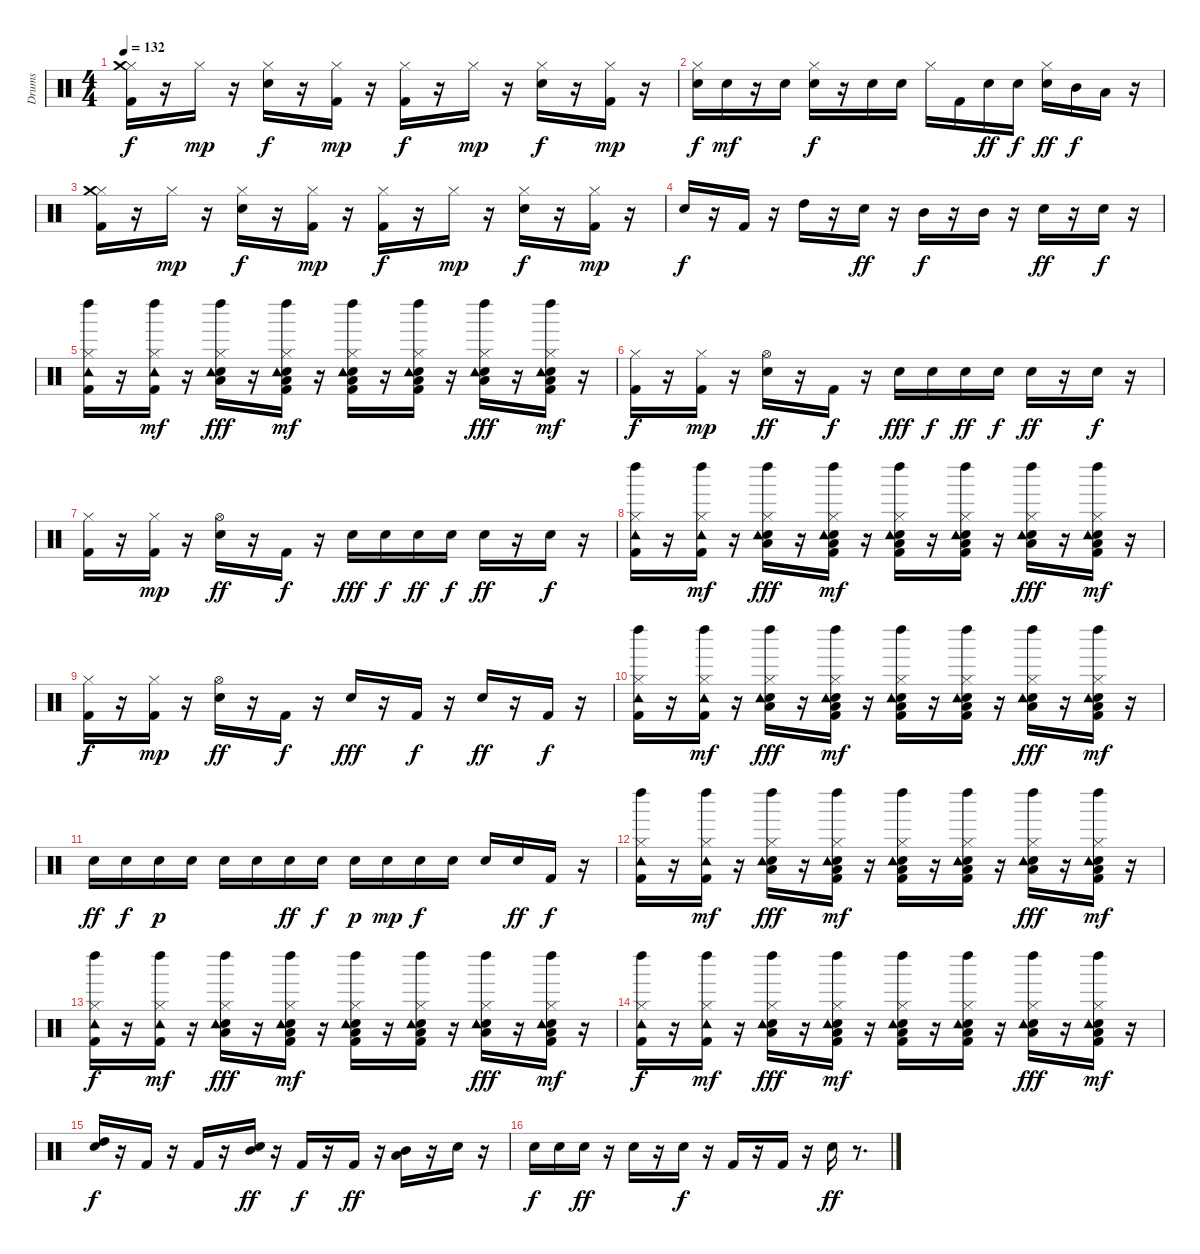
\track ("Drums" "Drums") {instrument percussion}
\staff {score}
\articulation defaults
\ts (4 4)
\tempo 132
\clef neutral
\ks c
("Kick (hit) 2" "Hi-Hat (closed)" "Crash medium (hit)").16{dy f} r.16 "Hi-Hat (closed)".16{dy mp} r.16 ("Snare (hit) 2" "Hi-Hat (closed)").16{dy f} r.16 ("Kick (hit) 2" "Hi-Hat (closed)").16{dy mp} r.16 ("Kick (hit) 2" "Hi-Hat (closed)").16{dy f} r.16 "Hi-Hat (closed)".16{dy mp} r.16 ("Snare (hit) 2" "Hi-Hat (closed)").16{dy f} r.16 ("Kick (hit) 2" "Hi-Hat (closed)").16{dy mp} r.16 |
("Snare (hit) 2" "Hi-Hat (closed)").16{dy f} "Snare (hit) 2".16{dy mf} r.16 "Snare (hit) 2".16 ("Snare (hit) 2" "Hi-Hat (closed)").16{dy f} r.16 "Snare (hit) 2".16 "Snare (hit) 2".16 "Hi-Hat (closed)".16 "Kick (hit) 2".16 "Snare (hit) 2".16{dy ff} "Snare (hit) 2".16{dy f} ("Snare (hit) 2" "Hi-Hat (closed)").16{dy ff} "Mid Tom (hit)".16{dy f} "Low Floor Tom (hit)".16 r.16 |
("Kick (hit) 2" "Hi-Hat (closed)" "Crash medium (hit)").16 r.16 "Hi-Hat (closed)".16{dy mp} r.16 ("Snare (hit) 2" "Hi-Hat (closed)").16{dy f} r.16 ("Kick (hit) 2" "Hi-Hat (closed)").16{dy mp} r.16 ("Kick (hit) 2" "Hi-Hat (closed)").16{dy f} r.16 "Hi-Hat (closed)".16{dy mp} r.16 ("Snare (hit) 2" "Hi-Hat (closed)").16{dy f} r.16 ("Kick (hit) 2" "Hi-Hat (closed)").16{dy mp} r.16 |
"Snare (hit) 2".16{dy f} r.16 "Kick (hit) 2".16 r.16 "High Tom (hit)".16 r.16 "Snare (hit) 2".16{dy ff} r.16 "Mid Tom (hit)".16{dy f} r.16 "Mid Tom (hit)".16 r.16 "Snare (hit) 2".16{dy ff} r.16 "Snare (hit) 2".16{dy f} r.16 |
("Kick (hit) 2" "Hi-Hat (closed)" "Tambourine (hit)" "Left Maraca (hit)").16 r.16 ("Kick (hit) 2" "Hi-Hat (closed)" "Tambourine (hit)" "Left Maraca (hit)").16{dy mf} r.16 ("Snare (hit) 2" "Hi-Hat (closed)" "Low Floor Tom (hit)" "Tambourine (hit)" "Left Maraca (hit)").16{dy fff} r.16 ("Kick (hit) 2" "Snare (hit) 2" "Hi-Hat (closed)" "Low Floor Tom (hit)" "Tambourine (hit)" "Left Maraca (hit)").16{dy mf} r.16 ("Kick (hit) 2" "Snare (hit) 2" "Hi-Hat (closed)" "Low Floor Tom (hit)" "Tambourine (hit)" "Left Maraca (hit)").16 r.16 ("Kick (hit) 2" "Snare (hit) 2" "Hi-Hat (closed)" "Low Floor Tom (hit)" "Tambourine (hit)" "Left Maraca (hit)").16 r.16 ("Snare (hit) 2" "Hi-Hat (closed)" "Low Floor Tom (hit)" "Tambourine (hit)" "Left Maraca (hit)").16{dy fff} r.16 ("Kick (hit) 2" "Snare (hit) 2" "Hi-Hat (closed)" "Low Floor Tom (hit)" "Tambourine (hit)" "Left Maraca (hit)").16{dy mf} r.16 |
("Kick (hit) 2" "Hi-Hat (closed)").16{dy f} r.16 ("Kick (hit) 2" "Hi-Hat (closed)").16{dy mp} r.16 ("Snare (hit) 2" "Hi-Hat (open)").16{dy ff} r.16 "Kick (hit) 2".16{dy f} r.16 "Snare (hit) 2".16{dy fff} "Snare (hit) 2".16{dy f} "Snare (hit) 2".16{dy ff} "Snare (hit) 2".16{dy f} "Snare (hit) 2".16{dy ff} r.16 "Snare (hit) 2".16{dy f} r.16 |
("Kick (hit) 2" "Hi-Hat (closed)").16 r.16 ("Kick (hit) 2" "Hi-Hat (closed)").16{dy mp} r.16 ("Snare (hit) 2" "Hi-Hat (open)").16{dy ff} r.16 "Kick (hit) 2".16{dy f} r.16 "Snare (hit) 2".16{dy fff} "Snare (hit) 2".16{dy f} "Snare (hit) 2".16{dy ff} "Snare (hit) 2".16{dy f} "Snare (hit) 2".16{dy ff} r.16 "Snare (hit) 2".16{dy f} r.16 |
("Kick (hit) 2" "Hi-Hat (closed)" "Tambourine (hit)" "Left Maraca (hit)").16 r.16 ("Kick (hit) 2" "Hi-Hat (closed)" "Tambourine (hit)" "Left Maraca (hit)").16{dy mf} r.16 ("Snare (hit) 2" "Hi-Hat (closed)" "Low Floor Tom (hit)" "Tambourine (hit)" "Left Maraca (hit)").16{dy fff} r.16 ("Kick (hit) 2" "Snare (hit) 2" "Hi-Hat (closed)" "Low Floor Tom (hit)" "Tambourine (hit)" "Left Maraca (hit)").16{dy mf} r.16 ("Kick (hit) 2" "Snare (hit) 2" "Hi-Hat (closed)" "Low Floor Tom (hit)" "Tambourine (hit)" "Left Maraca (hit)").16 r.16 ("Kick (hit) 2" "Snare (hit) 2" "Hi-Hat (closed)" "Low Floor Tom (hit)" "Tambourine (hit)" "Left Maraca (hit)").16 r.16 ("Snare (hit) 2" "Hi-Hat (closed)" "Low Floor Tom (hit)" "Tambourine (hit)" "Left Maraca (hit)").16{dy fff} r.16 ("Kick (hit) 2" "Snare (hit) 2" "Hi-Hat (closed)" "Low Floor Tom (hit)" "Tambourine (hit)" "Left Maraca (hit)").16{dy mf} r.16 |
("Kick (hit) 2" "Hi-Hat (closed)").16{dy f} r.16 ("Kick (hit) 2" "Hi-Hat (closed)").16{dy mp} r.16 ("Snare (hit) 2" "Hi-Hat (open)").16{dy ff} r.16 "Kick (hit) 2".16{dy f} r.16 "Snare (hit) 2".16{dy fff} r.16 "Kick (hit) 2".16{dy f} r.16 "Snare (hit) 2".16{dy ff} r.16 "Kick (hit) 2".16{dy f} r.16 |
("Kick (hit) 2" "Hi-Hat (closed)" "Tambourine (hit)" "Left Maraca (hit)").16 r.16 ("Kick (hit) 2" "Hi-Hat (closed)" "Tambourine (hit)" "Left Maraca (hit)").16{dy mf} r.16 ("Snare (hit) 2" "Hi-Hat (closed)" "Low Floor Tom (hit)" "Tambourine (hit)" "Left Maraca (hit)").16{dy fff} r.16 ("Kick (hit) 2" "Snare (hit) 2" "Hi-Hat (closed)" "Low Floor Tom (hit)" "Tambourine (hit)" "Left Maraca (hit)").16{dy mf} r.16 ("Kick (hit) 2" "Snare (hit) 2" "Hi-Hat (closed)" "Low Floor Tom (hit)" "Tambourine (hit)" "Left Maraca (hit)").16 r.16 ("Kick (hit) 2" "Snare (hit) 2" "Hi-Hat (closed)" "Low Floor Tom (hit)" "Tambourine (hit)" "Left Maraca (hit)").16 r.16 ("Snare (hit) 2" "Hi-Hat (closed)" "Low Floor Tom (hit)" "Tambourine (hit)" "Left Maraca (hit)").16{dy fff} r.16 ("Kick (hit) 2" "Snare (hit) 2" "Hi-Hat (closed)" "Low Floor Tom (hit)" "Tambourine (hit)" "Left Maraca (hit)").16{dy mf} r.16 |
"Snare (hit) 2".16{dy ff} "Snare (hit) 2".16{dy f} "Snare (hit) 2".16{dy p} "Snare (hit) 2".16 "Snare (hit) 2".16 "Snare (hit) 2".16 "Snare (hit) 2".16{dy ff} "Snare (hit) 2".16{dy f} "Snare (hit) 2".16{dy p} "Snare (hit) 2".16{dy mp} "Snare (hit) 2".16{dy f} "Snare (hit) 2".16 "Snare (hit) 2".16 "Snare (hit) 2".16{dy ff} "Kick (hit) 2".16{dy f} r.16 |
("Kick (hit) 2" "Hi-Hat (closed)" "Tambourine (hit)" "Left Maraca (hit)").16 r.16 ("Kick (hit) 2" "Hi-Hat (closed)" "Tambourine (hit)" "Left Maraca (hit)").16{dy mf} r.16 ("Snare (hit) 2" "Hi-Hat (closed)" "Low Floor Tom (hit)" "Tambourine (hit)" "Left Maraca (hit)").16{dy fff} r.16 ("Kick (hit) 2" "Snare (hit) 2" "Hi-Hat (closed)" "Low Floor Tom (hit)" "Tambourine (hit)" "Left Maraca (hit)").16{dy mf} r.16 ("Kick (hit) 2" "Snare (hit) 2" "Hi-Hat (closed)" "Low Floor Tom (hit)" "Tambourine (hit)" "Left Maraca (hit)").16 r.16 ("Kick (hit) 2" "Snare (hit) 2" "Hi-Hat (closed)" "Low Floor Tom (hit)" "Tambourine (hit)" "Left Maraca (hit)").16 r.16 ("Snare (hit) 2" "Hi-Hat (closed)" "Low Floor Tom (hit)" "Tambourine (hit)" "Left Maraca (hit)").16{dy fff} r.16 ("Kick (hit) 2" "Snare (hit) 2" "Hi-Hat (closed)" "Low Floor Tom (hit)" "Tambourine (hit)" "Left Maraca (hit)").16{dy mf} r.16 |
("Kick (hit) 2" "Hi-Hat (closed)" "Tambourine (hit)" "Left Maraca (hit)").16{dy f} r.16 ("Kick (hit) 2" "Hi-Hat (closed)" "Tambourine (hit)" "Left Maraca (hit)").16{dy mf} r.16 ("Snare (hit) 2" "Hi-Hat (closed)" "Low Floor Tom (hit)" "Tambourine (hit)" "Left Maraca (hit)").16{dy fff} r.16 ("Kick (hit) 2" "Snare (hit) 2" "Hi-Hat (closed)" "Low Floor Tom (hit)" "Tambourine (hit)" "Left Maraca (hit)").16{dy mf} r.16 ("Kick (hit) 2" "Snare (hit) 2" "Hi-Hat (closed)" "Low Floor Tom (hit)" "Tambourine (hit)" "Left Maraca (hit)").16 r.16 ("Kick (hit) 2" "Snare (hit) 2" "Hi-Hat (closed)" "Low Floor Tom (hit)" "Tambourine (hit)" "Left Maraca (hit)").16 r.16 ("Snare (hit) 2" "Hi-Hat (closed)" "Low Floor Tom (hit)" "Tambourine (hit)" "Left Maraca (hit)").16{dy fff} r.16 ("Kick (hit) 2" "Snare (hit) 2" "Hi-Hat (closed)" "Low Floor Tom (hit)" "Tambourine (hit)" "Left Maraca (hit)").16{dy mf} r.16 |
("Kick (hit) 2" "Hi-Hat (closed)" "Tambourine (hit)" "Left Maraca (hit)").16{dy f} r.16 ("Kick (hit) 2" "Hi-Hat (closed)" "Tambourine (hit)" "Left Maraca (hit)").16{dy mf} r.16 ("Snare (hit) 2" "Hi-Hat (closed)" "Low Floor Tom (hit)" "Tambourine (hit)" "Left Maraca (hit)").16{dy fff} r.16 ("Kick (hit) 2" "Snare (hit) 2" "Hi-Hat (closed)" "Low Floor Tom (hit)" "Tambourine (hit)" "Left Maraca (hit)").16{dy mf} r.16 ("Kick (hit) 2" "Snare (hit) 2" "Hi-Hat (closed)" "Low Floor Tom (hit)" "Tambourine (hit)" "Left Maraca (hit)").16 r.16 ("Kick (hit) 2" "Snare (hit) 2" "Hi-Hat (closed)" "Low Floor Tom (hit)" "Tambourine (hit)" "Left Maraca (hit)").16 r.16 ("Snare (hit) 2" "Hi-Hat (closed)" "Low Floor Tom (hit)" "Tambourine (hit)" "Left Maraca (hit)").16{dy fff} r.16 ("Kick (hit) 2" "Snare (hit) 2" "Hi-Hat (closed)" "Low Floor Tom (hit)" "Tambourine (hit)" "Left Maraca (hit)").16{dy mf} r.16 |
("Snare (hit) 2" "High Tom (hit)").16{dy f} r.16 "Kick (hit) 2".16 r.16 "Kick (hit) 2".16 r.16 ("Snare (hit) 2" "Mid Tom (hit)").16{dy ff} r.16 "Kick (hit) 2".16{dy f} r.16 "Kick (hit) 2".16{dy ff} r.16 ("Low Floor Tom (hit)" "Mid Tom (hit)").16 r.16 "Snare (hit) 2".16 r.16 |
"Snare (hit) 2".16{dy f} "Snare (hit) 2".16 "Snare (hit) 2".16{dy ff} r.16 "Snare (hit) 2".16 r.16 "Snare (hit) 2".16{dy f} r.16 "Kick (hit) 2".16 r.16 "Kick (hit) 2".16 r.16 "Snare (hit) 2".16{dy ff} r.8{d}
